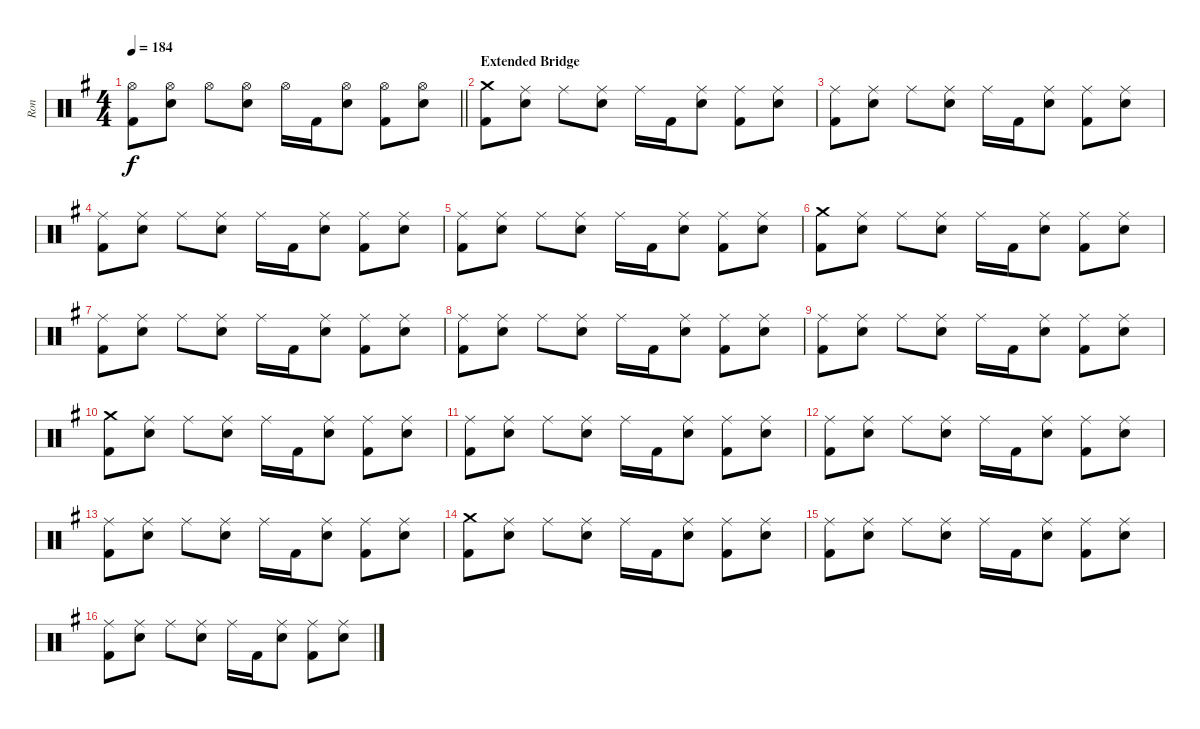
\track ("Ron" "Ron") {instrument percussion}
\staff {score}
\articulation defaults
\ts (4 4)
\tempo 184
\clef neutral
\barLineRight lightlight
\ks eminor
("Hi-Hat (open)" "Kick (hit) 2").8{dy f} ("Hi-Hat (open)" "Electric Snare (hit)").8 "Hi-Hat (open)".8 ("Hi-Hat (open)" "Electric Snare (hit)").8 "Hi-Hat (open)".16 "Kick (hit) 2".16 ("Hi-Hat (open)" "Electric Snare (hit)").8 ("Hi-Hat (open)" "Kick (hit) 2").8 ("Hi-Hat (open)" "Electric Snare (hit)").8 |
\section ("" "Extended Bridge")
("Crash medium (hit)" "Kick (hit) 2").8 ("Ride (middle)" "Electric Snare (hit)").8 "Ride (middle)".8 ("Ride (middle)" "Electric Snare (hit)").8 "Ride (middle)".16 "Kick (hit) 2".16 ("Ride (middle)" "Electric Snare (hit)").8 ("Ride (middle)" "Kick (hit) 2").8 ("Ride (middle)" "Electric Snare (hit)").8 |
("Ride (middle)" "Kick (hit) 2").8 ("Ride (middle)" "Electric Snare (hit)").8 "Ride (middle)".8 ("Ride (middle)" "Electric Snare (hit)").8 "Ride (middle)".16 "Kick (hit) 2".16 ("Ride (middle)" "Electric Snare (hit)").8 ("Ride (middle)" "Kick (hit) 2").8 ("Ride (middle)" "Electric Snare (hit)").8 |
("Ride (middle)" "Kick (hit) 2").8 ("Ride (middle)" "Electric Snare (hit)").8 "Ride (middle)".8 ("Ride (middle)" "Electric Snare (hit)").8 "Ride (middle)".16 "Kick (hit) 2".16 ("Ride (middle)" "Electric Snare (hit)").8 ("Ride (middle)" "Kick (hit) 2").8 ("Ride (middle)" "Electric Snare (hit)").8 |
("Ride (middle)" "Kick (hit) 2").8 ("Ride (middle)" "Electric Snare (hit)").8 "Ride (middle)".8 ("Ride (middle)" "Electric Snare (hit)").8 "Ride (middle)".16 "Kick (hit) 2".16 ("Ride (middle)" "Electric Snare (hit)").8 ("Ride (middle)" "Kick (hit) 2").8 ("Ride (middle)" "Electric Snare (hit)").8 |
("Crash medium (hit)" "Kick (hit) 2").8 ("Ride (middle)" "Electric Snare (hit)").8 "Ride (middle)".8 ("Ride (middle)" "Electric Snare (hit)").8 "Ride (middle)".16 "Kick (hit) 2".16 ("Ride (middle)" "Electric Snare (hit)").8 ("Ride (middle)" "Kick (hit) 2").8 ("Ride (middle)" "Electric Snare (hit)").8 |
("Ride (middle)" "Kick (hit) 2").8 ("Ride (middle)" "Electric Snare (hit)").8 "Ride (middle)".8 ("Ride (middle)" "Electric Snare (hit)").8 "Ride (middle)".16 "Kick (hit) 2".16 ("Ride (middle)" "Electric Snare (hit)").8 ("Ride (middle)" "Kick (hit) 2").8 ("Ride (middle)" "Electric Snare (hit)").8 |
("Ride (middle)" "Kick (hit) 2").8 ("Ride (middle)" "Electric Snare (hit)").8 "Ride (middle)".8 ("Ride (middle)" "Electric Snare (hit)").8 "Ride (middle)".16 "Kick (hit) 2".16 ("Ride (middle)" "Electric Snare (hit)").8 ("Ride (middle)" "Kick (hit) 2").8 ("Ride (middle)" "Electric Snare (hit)").8 |
("Ride (middle)" "Kick (hit) 2").8 ("Ride (middle)" "Electric Snare (hit)").8 "Ride (middle)".8 ("Ride (middle)" "Electric Snare (hit)").8 "Ride (middle)".16 "Kick (hit) 2".16 ("Ride (middle)" "Electric Snare (hit)").8 ("Ride (middle)" "Kick (hit) 2").8 ("Ride (middle)" "Electric Snare (hit)").8 |
("Crash medium (hit)" "Kick (hit) 2").8 ("Ride (middle)" "Electric Snare (hit)").8 "Ride (middle)".8 ("Ride (middle)" "Electric Snare (hit)").8 "Ride (middle)".16 "Kick (hit) 2".16 ("Ride (middle)" "Electric Snare (hit)").8 ("Ride (middle)" "Kick (hit) 2").8 ("Ride (middle)" "Electric Snare (hit)").8 |
("Ride (middle)" "Kick (hit) 2").8 ("Ride (middle)" "Electric Snare (hit)").8 "Ride (middle)".8 ("Ride (middle)" "Electric Snare (hit)").8 "Ride (middle)".16 "Kick (hit) 2".16 ("Ride (middle)" "Electric Snare (hit)").8 ("Ride (middle)" "Kick (hit) 2").8 ("Ride (middle)" "Electric Snare (hit)").8 |
("Ride (middle)" "Kick (hit) 2").8 ("Ride (middle)" "Electric Snare (hit)").8 "Ride (middle)".8 ("Ride (middle)" "Electric Snare (hit)").8 "Ride (middle)".16 "Kick (hit) 2".16 ("Ride (middle)" "Electric Snare (hit)").8 ("Ride (middle)" "Kick (hit) 2").8 ("Ride (middle)" "Electric Snare (hit)").8 |
("Ride (middle)" "Kick (hit) 2").8 ("Ride (middle)" "Electric Snare (hit)").8 "Ride (middle)".8 ("Ride (middle)" "Electric Snare (hit)").8 "Ride (middle)".16 "Kick (hit) 2".16 ("Ride (middle)" "Electric Snare (hit)").8 ("Ride (middle)" "Kick (hit) 2").8 ("Ride (middle)" "Electric Snare (hit)").8 |
("Crash medium (hit)" "Kick (hit) 2").8{volume 8} ("Ride (middle)" "Electric Snare (hit)").8 "Ride (middle)".8 ("Ride (middle)" "Electric Snare (hit)").8 "Ride (middle)".16 "Kick (hit) 2".16 ("Ride (middle)" "Electric Snare (hit)").8 ("Ride (middle)" "Kick (hit) 2").8 ("Ride (middle)" "Electric Snare (hit)").8 |
("Ride (middle)" "Kick (hit) 2").8 ("Ride (middle)" "Electric Snare (hit)").8 "Ride (middle)".8 ("Ride (middle)" "Electric Snare (hit)").8 "Ride (middle)".16 "Kick (hit) 2".16 ("Ride (middle)" "Electric Snare (hit)").8 ("Ride (middle)" "Kick (hit) 2").8 ("Ride (middle)" "Electric Snare (hit)").8 |
("Ride (middle)" "Kick (hit) 2").8 ("Ride (middle)" "Electric Snare (hit)").8 "Ride (middle)".8 ("Ride (middle)" "Electric Snare (hit)").8 "Ride (middle)".16 "Kick (hit) 2".16 ("Ride (middle)" "Electric Snare (hit)").8 ("Ride (middle)" "Kick (hit) 2").8 ("Ride (middle)" "Electric Snare (hit)").8
